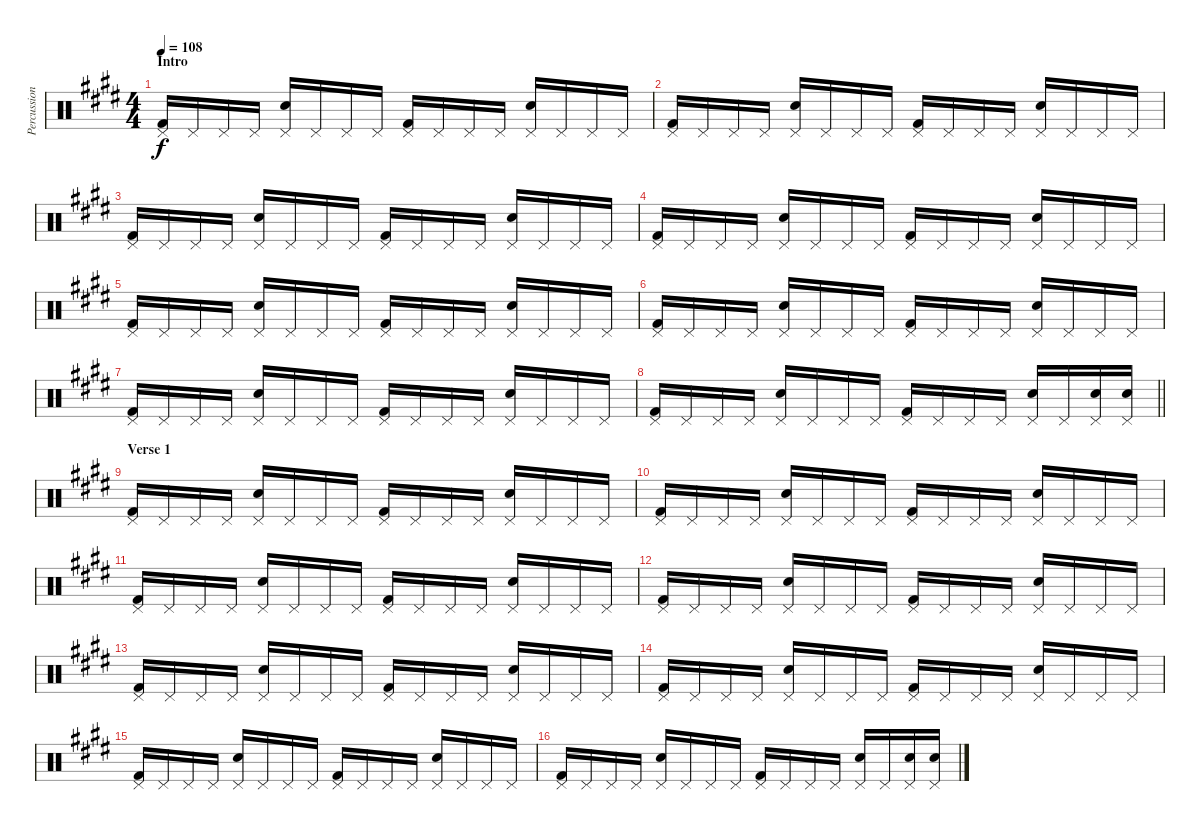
\track ("Percussion" "Percussion") {instrument percussion}
\staff {score}
\articulation defaults
\ts (4 4)
\section ("" "Intro")
\tempo 108
\clef neutral
\ks e
("Pedal Hi-Hat (hit)" "Kick (hit) 2").16{dy f} "Pedal Hi-Hat (hit)".16 "Pedal Hi-Hat (hit)".16 "Pedal Hi-Hat (hit)".16 ("Pedal Hi-Hat (hit)" "Snare (hit) 2").16 "Pedal Hi-Hat (hit)".16 "Pedal Hi-Hat (hit)".16 "Pedal Hi-Hat (hit)".16 ("Pedal Hi-Hat (hit)" "Kick (hit) 2").16 "Pedal Hi-Hat (hit)".16 "Pedal Hi-Hat (hit)".16 "Pedal Hi-Hat (hit)".16 ("Pedal Hi-Hat (hit)" "Snare (hit) 2").16 "Pedal Hi-Hat (hit)".16 "Pedal Hi-Hat (hit)".16 "Pedal Hi-Hat (hit)".16 |
("Pedal Hi-Hat (hit)" "Kick (hit) 2").16 "Pedal Hi-Hat (hit)".16 "Pedal Hi-Hat (hit)".16 "Pedal Hi-Hat (hit)".16 ("Pedal Hi-Hat (hit)" "Snare (hit) 2").16 "Pedal Hi-Hat (hit)".16 "Pedal Hi-Hat (hit)".16 "Pedal Hi-Hat (hit)".16 ("Pedal Hi-Hat (hit)" "Kick (hit) 2").16 "Pedal Hi-Hat (hit)".16 "Pedal Hi-Hat (hit)".16 "Pedal Hi-Hat (hit)".16 ("Pedal Hi-Hat (hit)" "Snare (hit) 2").16 "Pedal Hi-Hat (hit)".16 "Pedal Hi-Hat (hit)".16 "Pedal Hi-Hat (hit)".16 |
("Pedal Hi-Hat (hit)" "Kick (hit) 2").16 "Pedal Hi-Hat (hit)".16 "Pedal Hi-Hat (hit)".16 "Pedal Hi-Hat (hit)".16 ("Pedal Hi-Hat (hit)" "Snare (hit) 2").16 "Pedal Hi-Hat (hit)".16 "Pedal Hi-Hat (hit)".16 "Pedal Hi-Hat (hit)".16 ("Pedal Hi-Hat (hit)" "Kick (hit) 2").16 "Pedal Hi-Hat (hit)".16 "Pedal Hi-Hat (hit)".16 "Pedal Hi-Hat (hit)".16 ("Pedal Hi-Hat (hit)" "Snare (hit) 2").16 "Pedal Hi-Hat (hit)".16 "Pedal Hi-Hat (hit)".16 "Pedal Hi-Hat (hit)".16 |
("Pedal Hi-Hat (hit)" "Kick (hit) 2").16 "Pedal Hi-Hat (hit)".16 "Pedal Hi-Hat (hit)".16 "Pedal Hi-Hat (hit)".16 ("Pedal Hi-Hat (hit)" "Snare (hit) 2").16 "Pedal Hi-Hat (hit)".16 "Pedal Hi-Hat (hit)".16 "Pedal Hi-Hat (hit)".16 ("Pedal Hi-Hat (hit)" "Kick (hit) 2").16 "Pedal Hi-Hat (hit)".16 "Pedal Hi-Hat (hit)".16 "Pedal Hi-Hat (hit)".16 ("Pedal Hi-Hat (hit)" "Snare (hit) 2").16 "Pedal Hi-Hat (hit)".16 "Pedal Hi-Hat (hit)".16 "Pedal Hi-Hat (hit)".16 |
("Pedal Hi-Hat (hit)" "Kick (hit) 2").16 "Pedal Hi-Hat (hit)".16 "Pedal Hi-Hat (hit)".16 "Pedal Hi-Hat (hit)".16 ("Pedal Hi-Hat (hit)" "Snare (hit) 2").16 "Pedal Hi-Hat (hit)".16 "Pedal Hi-Hat (hit)".16 "Pedal Hi-Hat (hit)".16 ("Pedal Hi-Hat (hit)" "Kick (hit) 2").16 "Pedal Hi-Hat (hit)".16 "Pedal Hi-Hat (hit)".16 "Pedal Hi-Hat (hit)".16 ("Pedal Hi-Hat (hit)" "Snare (hit) 2").16 "Pedal Hi-Hat (hit)".16 "Pedal Hi-Hat (hit)".16 "Pedal Hi-Hat (hit)".16 |
("Pedal Hi-Hat (hit)" "Kick (hit) 2").16 "Pedal Hi-Hat (hit)".16 "Pedal Hi-Hat (hit)".16 "Pedal Hi-Hat (hit)".16 ("Pedal Hi-Hat (hit)" "Snare (hit) 2").16 "Pedal Hi-Hat (hit)".16 "Pedal Hi-Hat (hit)".16 "Pedal Hi-Hat (hit)".16 ("Pedal Hi-Hat (hit)" "Kick (hit) 2").16 "Pedal Hi-Hat (hit)".16 "Pedal Hi-Hat (hit)".16 "Pedal Hi-Hat (hit)".16 ("Pedal Hi-Hat (hit)" "Snare (hit) 2").16 "Pedal Hi-Hat (hit)".16 "Pedal Hi-Hat (hit)".16 "Pedal Hi-Hat (hit)".16 |
("Pedal Hi-Hat (hit)" "Kick (hit) 2").16 "Pedal Hi-Hat (hit)".16 "Pedal Hi-Hat (hit)".16 "Pedal Hi-Hat (hit)".16 ("Pedal Hi-Hat (hit)" "Snare (hit) 2").16 "Pedal Hi-Hat (hit)".16 "Pedal Hi-Hat (hit)".16 "Pedal Hi-Hat (hit)".16 ("Pedal Hi-Hat (hit)" "Kick (hit) 2").16 "Pedal Hi-Hat (hit)".16 "Pedal Hi-Hat (hit)".16 "Pedal Hi-Hat (hit)".16 ("Pedal Hi-Hat (hit)" "Snare (hit) 2").16 "Pedal Hi-Hat (hit)".16 "Pedal Hi-Hat (hit)".16 "Pedal Hi-Hat (hit)".16 |
\barLineRight lightlight
("Pedal Hi-Hat (hit)" "Kick (hit) 2").16 "Pedal Hi-Hat (hit)".16 "Pedal Hi-Hat (hit)".16 "Pedal Hi-Hat (hit)".16 ("Pedal Hi-Hat (hit)" "Snare (hit) 2").16 "Pedal Hi-Hat (hit)".16 "Pedal Hi-Hat (hit)".16 "Pedal Hi-Hat (hit)".16 ("Pedal Hi-Hat (hit)" "Kick (hit) 2").16 "Pedal Hi-Hat (hit)".16 "Pedal Hi-Hat (hit)".16 "Pedal Hi-Hat (hit)".16 ("Pedal Hi-Hat (hit)" "Snare (hit) 2").16 "Pedal Hi-Hat (hit)".16 ("Pedal Hi-Hat (hit)" "Snare (hit) 2").16 ("Pedal Hi-Hat (hit)" "Snare (hit) 2").16 |
\section ("" "Verse 1")
("Pedal Hi-Hat (hit)" "Kick (hit) 2").16 "Pedal Hi-Hat (hit)".16 "Pedal Hi-Hat (hit)".16 "Pedal Hi-Hat (hit)".16 ("Pedal Hi-Hat (hit)" "Snare (hit) 2").16 "Pedal Hi-Hat (hit)".16 "Pedal Hi-Hat (hit)".16 "Pedal Hi-Hat (hit)".16 ("Pedal Hi-Hat (hit)" "Kick (hit) 2").16 "Pedal Hi-Hat (hit)".16 "Pedal Hi-Hat (hit)".16 "Pedal Hi-Hat (hit)".16 ("Pedal Hi-Hat (hit)" "Snare (hit) 2").16 "Pedal Hi-Hat (hit)".16 "Pedal Hi-Hat (hit)".16 "Pedal Hi-Hat (hit)".16 |
("Pedal Hi-Hat (hit)" "Kick (hit) 2").16 "Pedal Hi-Hat (hit)".16 "Pedal Hi-Hat (hit)".16 "Pedal Hi-Hat (hit)".16 ("Pedal Hi-Hat (hit)" "Snare (hit) 2").16 "Pedal Hi-Hat (hit)".16 "Pedal Hi-Hat (hit)".16 "Pedal Hi-Hat (hit)".16 ("Pedal Hi-Hat (hit)" "Kick (hit) 2").16 "Pedal Hi-Hat (hit)".16 "Pedal Hi-Hat (hit)".16 "Pedal Hi-Hat (hit)".16 ("Pedal Hi-Hat (hit)" "Snare (hit) 2").16 "Pedal Hi-Hat (hit)".16 "Pedal Hi-Hat (hit)".16 "Pedal Hi-Hat (hit)".16 |
("Pedal Hi-Hat (hit)" "Kick (hit) 2").16 "Pedal Hi-Hat (hit)".16 "Pedal Hi-Hat (hit)".16 "Pedal Hi-Hat (hit)".16 ("Pedal Hi-Hat (hit)" "Snare (hit) 2").16 "Pedal Hi-Hat (hit)".16 "Pedal Hi-Hat (hit)".16 "Pedal Hi-Hat (hit)".16 ("Pedal Hi-Hat (hit)" "Kick (hit) 2").16 "Pedal Hi-Hat (hit)".16 "Pedal Hi-Hat (hit)".16 "Pedal Hi-Hat (hit)".16 ("Pedal Hi-Hat (hit)" "Snare (hit) 2").16 "Pedal Hi-Hat (hit)".16 "Pedal Hi-Hat (hit)".16 "Pedal Hi-Hat (hit)".16 |
("Pedal Hi-Hat (hit)" "Kick (hit) 2").16 "Pedal Hi-Hat (hit)".16 "Pedal Hi-Hat (hit)".16 "Pedal Hi-Hat (hit)".16 ("Pedal Hi-Hat (hit)" "Snare (hit) 2").16 "Pedal Hi-Hat (hit)".16 "Pedal Hi-Hat (hit)".16 "Pedal Hi-Hat (hit)".16 ("Pedal Hi-Hat (hit)" "Kick (hit) 2").16 "Pedal Hi-Hat (hit)".16 "Pedal Hi-Hat (hit)".16 "Pedal Hi-Hat (hit)".16 ("Pedal Hi-Hat (hit)" "Snare (hit) 2").16 "Pedal Hi-Hat (hit)".16 "Pedal Hi-Hat (hit)".16 "Pedal Hi-Hat (hit)".16 |
("Pedal Hi-Hat (hit)" "Kick (hit) 2").16 "Pedal Hi-Hat (hit)".16 "Pedal Hi-Hat (hit)".16 "Pedal Hi-Hat (hit)".16 ("Pedal Hi-Hat (hit)" "Snare (hit) 2").16 "Pedal Hi-Hat (hit)".16 "Pedal Hi-Hat (hit)".16 "Pedal Hi-Hat (hit)".16 ("Pedal Hi-Hat (hit)" "Kick (hit) 2").16 "Pedal Hi-Hat (hit)".16 "Pedal Hi-Hat (hit)".16 "Pedal Hi-Hat (hit)".16 ("Pedal Hi-Hat (hit)" "Snare (hit) 2").16 "Pedal Hi-Hat (hit)".16 "Pedal Hi-Hat (hit)".16 "Pedal Hi-Hat (hit)".16 |
("Pedal Hi-Hat (hit)" "Kick (hit) 2").16 "Pedal Hi-Hat (hit)".16 "Pedal Hi-Hat (hit)".16 "Pedal Hi-Hat (hit)".16 ("Pedal Hi-Hat (hit)" "Snare (hit) 2").16 "Pedal Hi-Hat (hit)".16 "Pedal Hi-Hat (hit)".16 "Pedal Hi-Hat (hit)".16 ("Pedal Hi-Hat (hit)" "Kick (hit) 2").16 "Pedal Hi-Hat (hit)".16 "Pedal Hi-Hat (hit)".16 "Pedal Hi-Hat (hit)".16 ("Pedal Hi-Hat (hit)" "Snare (hit) 2").16 "Pedal Hi-Hat (hit)".16 "Pedal Hi-Hat (hit)".16 "Pedal Hi-Hat (hit)".16 |
("Pedal Hi-Hat (hit)" "Kick (hit) 2").16 "Pedal Hi-Hat (hit)".16 "Pedal Hi-Hat (hit)".16 "Pedal Hi-Hat (hit)".16 ("Pedal Hi-Hat (hit)" "Snare (hit) 2").16 "Pedal Hi-Hat (hit)".16 "Pedal Hi-Hat (hit)".16 "Pedal Hi-Hat (hit)".16 ("Pedal Hi-Hat (hit)" "Kick (hit) 2").16 "Pedal Hi-Hat (hit)".16 "Pedal Hi-Hat (hit)".16 "Pedal Hi-Hat (hit)".16 ("Pedal Hi-Hat (hit)" "Snare (hit) 2").16 "Pedal Hi-Hat (hit)".16 "Pedal Hi-Hat (hit)".16 "Pedal Hi-Hat (hit)".16 |
("Pedal Hi-Hat (hit)" "Kick (hit) 2").16 "Pedal Hi-Hat (hit)".16 "Pedal Hi-Hat (hit)".16 "Pedal Hi-Hat (hit)".16 ("Pedal Hi-Hat (hit)" "Snare (hit) 2").16 "Pedal Hi-Hat (hit)".16 "Pedal Hi-Hat (hit)".16 "Pedal Hi-Hat (hit)".16 ("Pedal Hi-Hat (hit)" "Kick (hit) 2").16 "Pedal Hi-Hat (hit)".16 "Pedal Hi-Hat (hit)".16 "Pedal Hi-Hat (hit)".16 ("Pedal Hi-Hat (hit)" "Snare (hit) 2").16 "Pedal Hi-Hat (hit)".16 ("Pedal Hi-Hat (hit)" "Snare (hit) 2").16 ("Pedal Hi-Hat (hit)" "Snare (hit) 2").16
